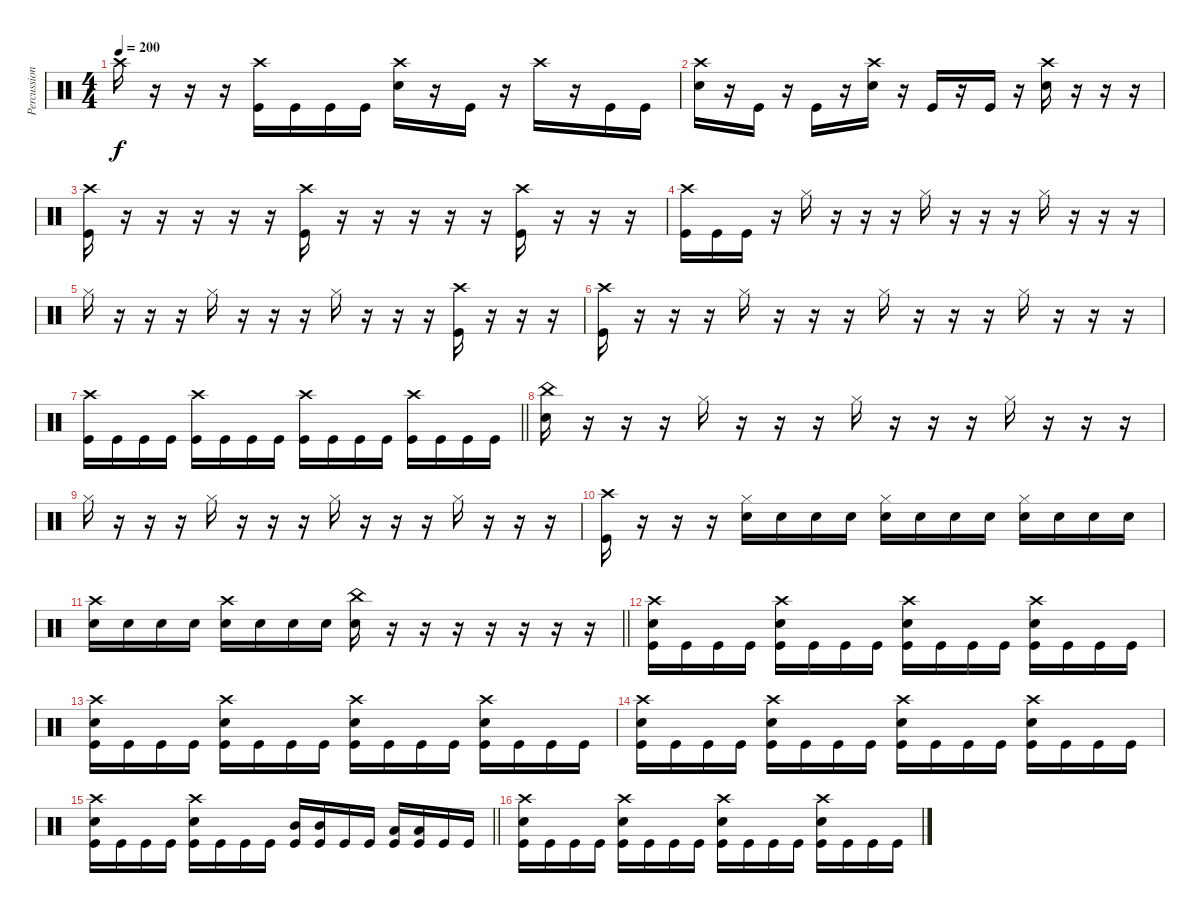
\track ("Percussion" "Percussion") {instrument percussion}
\staff {score}
\articulation defaults
\ts (4 4)
\tempo 200
\clef neutral
\ks c "Crash high (hit)".16{dy f}
r.16 r.16 r.16 ("Crash high (hit)" "Kick (hit)").16 "Kick (hit)".16 "Kick (hit)".16 "Kick (hit)".16 ("Crash high (hit)" "Electric Snare (hit)").16 r.16 "Kick (hit)".16 r.16 "Crash high (hit)".16 r.16 "Kick (hit)".16 "Kick (hit)".16 |
("Crash high (hit)" "Electric Snare (hit)").16 r.16 "Kick (hit)".16 r.16 "Kick (hit)".16 r.16 ("Crash high (hit)" "Electric Snare (hit)").16 r.16 "Kick (hit)".16 r.16 "Kick (hit)".16 r.16 ("Crash high (hit)" "Electric Snare (hit)").16 r.16 r.16 r.16 |
("Crash high (hit)" "Kick (hit)").16 r.16 r.16 r.16 r.16 r.16 ("Crash high (hit)" "Kick (hit)").16 r.16 r.16 r.16 r.16 r.16 ("Crash high (hit)" "Kick (hit)").16 r.16 r.16 r.16 |
("Crash high (hit)" "Kick (hit)").16 "Kick (hit)".16 "Kick (hit)".16 r.16 "Hi-Hat (closed)".16 r.16 r.16 r.16 "Hi-Hat (closed)".16 r.16 r.16 r.16 "Hi-Hat (closed)".16 r.16 r.16 r.16 |
"Hi-Hat (closed)".16 r.16 r.16 r.16 "Hi-Hat (closed)".16 r.16 r.16 r.16 "Hi-Hat (closed)".16 r.16 r.16 r.16 ("Crash high (hit)" "Kick (hit)").16 r.16 r.16 r.16 |
("Crash high (hit)" "Kick (hit)").16 r.16 r.16 r.16 "Hi-Hat (closed)".16 r.16 r.16 r.16 "Hi-Hat (closed)".16 r.16 r.16 r.16 "Hi-Hat (closed)".16 r.16 r.16 r.16 |
\barLineRight lightlight
("Crash high (hit)" "Kick (hit)").16 "Kick (hit)".16 "Kick (hit)".16 "Kick (hit)".16 ("Crash high (hit)" "Kick (hit)").16 "Kick (hit)".16 "Kick (hit)".16 "Kick (hit)".16 ("Crash high (hit)" "Kick (hit)").16 "Kick (hit)".16 "Kick (hit)".16 "Kick (hit)".16 ("Crash high (hit)" "Kick (hit)").16 "Kick (hit)".16 "Kick (hit)".16 "Kick (hit)".16 |
("China (hit)" "Electric Snare (hit)").16 r.16 r.16 r.16 "Hi-Hat (closed)".16 r.16 r.16 r.16 "Hi-Hat (closed)".16 r.16 r.16 r.16 "Hi-Hat (closed)".16 r.16 r.16 r.16 |
"Hi-Hat (closed)".16 r.16 r.16 r.16 "Hi-Hat (closed)".16 r.16 r.16 r.16 "Hi-Hat (closed)".16 r.16 r.16 r.16 "Hi-Hat (closed)".16 r.16 r.16 r.16 |
("Crash high (hit)" "Kick (hit)").16 r.16 r.16 r.16 ("Hi-Hat (closed)" "Electric Snare (hit)").16 "Electric Snare (hit)".16 "Electric Snare (hit)".16 "Electric Snare (hit)".16 ("Hi-Hat (closed)" "Electric Snare (hit)").16 "Electric Snare (hit)".16 "Electric Snare (hit)".16 "Electric Snare (hit)".16 ("Hi-Hat (closed)" "Electric Snare (hit)").16 "Electric Snare (hit)".16 "Electric Snare (hit)".16 "Electric Snare (hit)".16 |
\barLineRight lightlight
("Crash high (hit)" "Electric Snare (hit)").16 "Electric Snare (hit)".16 "Electric Snare (hit)".16 "Electric Snare (hit)".16 ("Crash high (hit)" "Electric Snare (hit)").16 "Electric Snare (hit)".16 "Electric Snare (hit)".16 "Electric Snare (hit)".16 ("China (hit)" "Electric Snare (hit)").16 r.16 r.16 r.16 r.16 r.16 r.16 r.16 |
("Crash high (hit)" "Kick (hit)" "Electric Snare (hit)").16 "Kick (hit)".16 "Kick (hit)".16 "Kick (hit)".16 ("Crash high (hit)" "Kick (hit)" "Electric Snare (hit)").16 "Kick (hit)".16 "Kick (hit)".16 "Kick (hit)".16 ("Crash high (hit)" "Kick (hit)" "Electric Snare (hit)").16 "Kick (hit)".16 "Kick (hit)".16 "Kick (hit)".16 ("Crash high (hit)" "Kick (hit)" "Electric Snare (hit)").16 "Kick (hit)".16 "Kick (hit)".16 "Kick (hit)".16 |
("Crash high (hit)" "Kick (hit)" "Electric Snare (hit)").16 "Kick (hit)".16 "Kick (hit)".16 "Kick (hit)".16 ("Crash high (hit)" "Kick (hit)" "Electric Snare (hit)").16 "Kick (hit)".16 "Kick (hit)".16 "Kick (hit)".16 ("Crash high (hit)" "Kick (hit)" "Electric Snare (hit)").16 "Kick (hit)".16 "Kick (hit)".16 "Kick (hit)".16 ("Crash high (hit)" "Kick (hit)" "Electric Snare (hit)").16 "Kick (hit)".16 "Kick (hit)".16 "Kick (hit)".16 |
("Crash high (hit)" "Kick (hit)" "Electric Snare (hit)").16 "Kick (hit)".16 "Kick (hit)".16 "Kick (hit)".16 ("Crash high (hit)" "Kick (hit)" "Electric Snare (hit)").16 "Kick (hit)".16 "Kick (hit)".16 "Kick (hit)".16 ("Crash high (hit)" "Kick (hit)" "Electric Snare (hit)").16 "Kick (hit)".16 "Kick (hit)".16 "Kick (hit)".16 ("Crash high (hit)" "Kick (hit)" "Electric Snare (hit)").16 "Kick (hit)".16 "Kick (hit)".16 "Kick (hit)".16 |
\barLineRight lightlight
("Crash high (hit)" "Kick (hit)" "Electric Snare (hit)").16 "Kick (hit)".16 "Kick (hit)".16 "Kick (hit)".16 ("Crash high (hit)" "Kick (hit)" "Electric Snare (hit)").16 "Kick (hit)".16 "Kick (hit)".16 "Kick (hit)".16 ("Kick (hit)" "Mid Tom (hit)").16 ("Kick (hit)" "Mid Tom (hit)").16 "Kick (hit)".16 "Kick (hit)".16 ("Kick (hit)" "Low Tom (hit)").16 ("Kick (hit)" "Low Tom (hit)").16 "Kick (hit)".16 "Kick (hit)".16 |
("Crash high (hit)" "Kick (hit)" "Electric Snare (hit)").16 "Kick (hit)".16 "Kick (hit)".16 "Kick (hit)".16 ("Crash high (hit)" "Kick (hit)" "Electric Snare (hit)").16 "Kick (hit)".16 "Kick (hit)".16 "Kick (hit)".16 ("Crash high (hit)" "Kick (hit)" "Electric Snare (hit)").16 "Kick (hit)".16 "Kick (hit)".16 "Kick (hit)".16 ("Crash high (hit)" "Kick (hit)" "Electric Snare (hit)").16 "Kick (hit)".16 "Kick (hit)".16 "Kick (hit)".16
